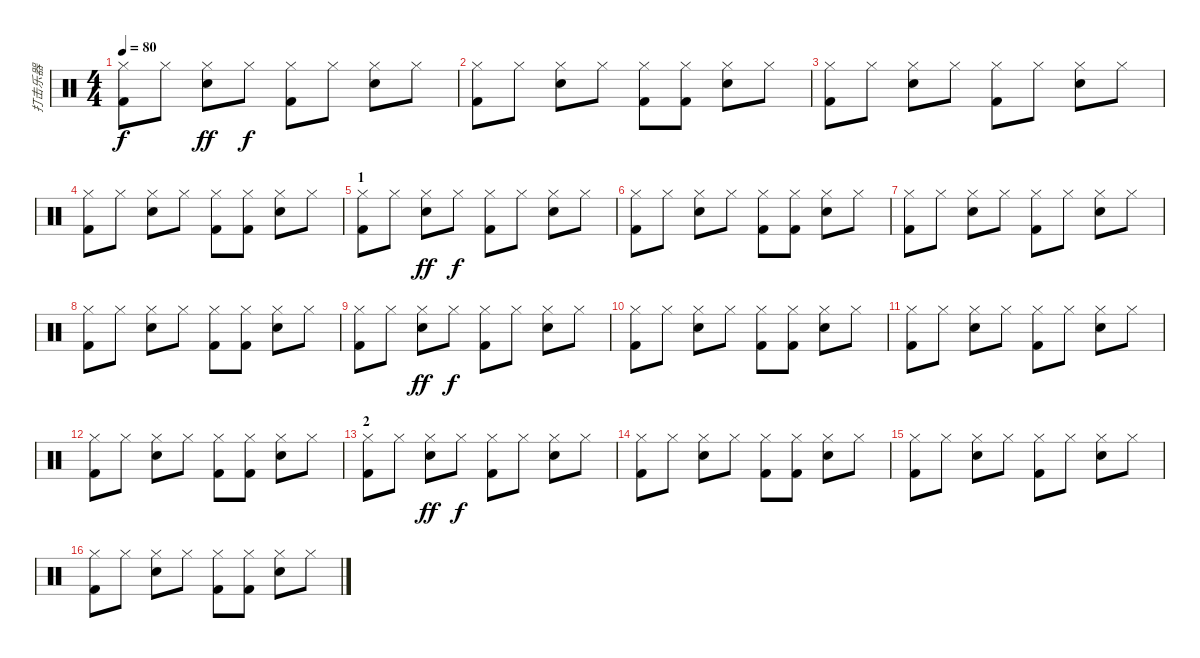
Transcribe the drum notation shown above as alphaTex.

\track ("打击乐器" "打击乐器") {instrument percussion}
\staff {score}
\articulation defaults
\ts (4 4)
\tempo 80
\clef neutral
\ks c
("Hi-Hat (closed)" "Kick (hit) 2").8{dy f} "Hi-Hat (closed)".8 ("Hi-Hat (closed)" "Snare (hit) 2").8{dy ff} "Hi-Hat (closed)".8{dy f} ("Hi-Hat (closed)" "Kick (hit) 2").8 "Hi-Hat (closed)".8 ("Hi-Hat (closed)" "Snare (hit) 2").8 "Hi-Hat (closed)".8 |
("Hi-Hat (closed)" "Kick (hit) 2").8 "Hi-Hat (closed)".8 ("Hi-Hat (closed)" "Snare (hit) 2").8 "Hi-Hat (closed)".8 ("Hi-Hat (closed)" "Kick (hit) 2").8 ("Hi-Hat (closed)" "Kick (hit) 2").8 ("Hi-Hat (closed)" "Snare (hit) 2").8 "Hi-Hat (closed)".8 |
("Hi-Hat (closed)" "Kick (hit) 2").8 "Hi-Hat (closed)".8 ("Hi-Hat (closed)" "Snare (hit) 2").8 "Hi-Hat (closed)".8 ("Hi-Hat (closed)" "Kick (hit) 2").8 "Hi-Hat (closed)".8 ("Hi-Hat (closed)" "Snare (hit) 2").8 "Hi-Hat (closed)".8 |
("Hi-Hat (closed)" "Kick (hit) 2").8 "Hi-Hat (closed)".8 ("Hi-Hat (closed)" "Snare (hit) 2").8 "Hi-Hat (closed)".8 ("Hi-Hat (closed)" "Kick (hit) 2").8 ("Hi-Hat (closed)" "Kick (hit) 2").8 ("Hi-Hat (closed)" "Snare (hit) 2").8 "Hi-Hat (closed)".8 |
\section ("" "1")
("Hi-Hat (closed)" "Kick (hit) 2").8 "Hi-Hat (closed)".8 ("Hi-Hat (closed)" "Snare (hit) 2").8{dy ff} "Hi-Hat (closed)".8{dy f} ("Hi-Hat (closed)" "Kick (hit) 2").8 "Hi-Hat (closed)".8 ("Hi-Hat (closed)" "Snare (hit) 2").8 "Hi-Hat (closed)".8 |
("Hi-Hat (closed)" "Kick (hit) 2").8 "Hi-Hat (closed)".8 ("Hi-Hat (closed)" "Snare (hit) 2").8 "Hi-Hat (closed)".8 ("Hi-Hat (closed)" "Kick (hit) 2").8 ("Hi-Hat (closed)" "Kick (hit) 2").8 ("Hi-Hat (closed)" "Snare (hit) 2").8 "Hi-Hat (closed)".8 |
("Hi-Hat (closed)" "Kick (hit) 2").8 "Hi-Hat (closed)".8 ("Hi-Hat (closed)" "Snare (hit) 2").8 "Hi-Hat (closed)".8 ("Hi-Hat (closed)" "Kick (hit) 2").8 "Hi-Hat (closed)".8 ("Hi-Hat (closed)" "Snare (hit) 2").8 "Hi-Hat (closed)".8 |
("Hi-Hat (closed)" "Kick (hit) 2").8 "Hi-Hat (closed)".8 ("Hi-Hat (closed)" "Snare (hit) 2").8 "Hi-Hat (closed)".8 ("Hi-Hat (closed)" "Kick (hit) 2").8 ("Hi-Hat (closed)" "Kick (hit) 2").8 ("Hi-Hat (closed)" "Snare (hit) 2").8 "Hi-Hat (closed)".8 |
("Hi-Hat (closed)" "Kick (hit) 2").8 "Hi-Hat (closed)".8 ("Hi-Hat (closed)" "Snare (hit) 2").8{dy ff} "Hi-Hat (closed)".8{dy f} ("Hi-Hat (closed)" "Kick (hit) 2").8 "Hi-Hat (closed)".8 ("Hi-Hat (closed)" "Snare (hit) 2").8 "Hi-Hat (closed)".8 |
("Hi-Hat (closed)" "Kick (hit) 2").8 "Hi-Hat (closed)".8 ("Hi-Hat (closed)" "Snare (hit) 2").8 "Hi-Hat (closed)".8 ("Hi-Hat (closed)" "Kick (hit) 2").8 ("Hi-Hat (closed)" "Kick (hit) 2").8 ("Hi-Hat (closed)" "Snare (hit) 2").8 "Hi-Hat (closed)".8 |
("Hi-Hat (closed)" "Kick (hit) 2").8 "Hi-Hat (closed)".8 ("Hi-Hat (closed)" "Snare (hit) 2").8 "Hi-Hat (closed)".8 ("Hi-Hat (closed)" "Kick (hit) 2").8 "Hi-Hat (closed)".8 ("Hi-Hat (closed)" "Snare (hit) 2").8 "Hi-Hat (closed)".8 |
("Hi-Hat (closed)" "Kick (hit) 2").8 "Hi-Hat (closed)".8 ("Hi-Hat (closed)" "Snare (hit) 2").8 "Hi-Hat (closed)".8 ("Hi-Hat (closed)" "Kick (hit) 2").8 ("Hi-Hat (closed)" "Kick (hit) 2").8 ("Hi-Hat (closed)" "Snare (hit) 2").8 "Hi-Hat (closed)".8 |
\section ("" "2")
("Hi-Hat (closed)" "Kick (hit) 2").8 "Hi-Hat (closed)".8 ("Hi-Hat (closed)" "Snare (hit) 2").8{dy ff} "Hi-Hat (closed)".8{dy f} ("Hi-Hat (closed)" "Kick (hit) 2").8 "Hi-Hat (closed)".8 ("Hi-Hat (closed)" "Snare (hit) 2").8 "Hi-Hat (closed)".8 |
("Hi-Hat (closed)" "Kick (hit) 2").8 "Hi-Hat (closed)".8 ("Hi-Hat (closed)" "Snare (hit) 2").8 "Hi-Hat (closed)".8 ("Hi-Hat (closed)" "Kick (hit) 2").8 ("Hi-Hat (closed)" "Kick (hit) 2").8 ("Hi-Hat (closed)" "Snare (hit) 2").8 "Hi-Hat (closed)".8 |
("Hi-Hat (closed)" "Kick (hit) 2").8 "Hi-Hat (closed)".8 ("Hi-Hat (closed)" "Snare (hit) 2").8 "Hi-Hat (closed)".8 ("Hi-Hat (closed)" "Kick (hit) 2").8 "Hi-Hat (closed)".8 ("Hi-Hat (closed)" "Snare (hit) 2").8 "Hi-Hat (closed)".8 |
("Hi-Hat (closed)" "Kick (hit) 2").8 "Hi-Hat (closed)".8 ("Hi-Hat (closed)" "Snare (hit) 2").8 "Hi-Hat (closed)".8 ("Hi-Hat (closed)" "Kick (hit) 2").8 ("Hi-Hat (closed)" "Kick (hit) 2").8 ("Hi-Hat (closed)" "Snare (hit) 2").8 "Hi-Hat (closed)".8
